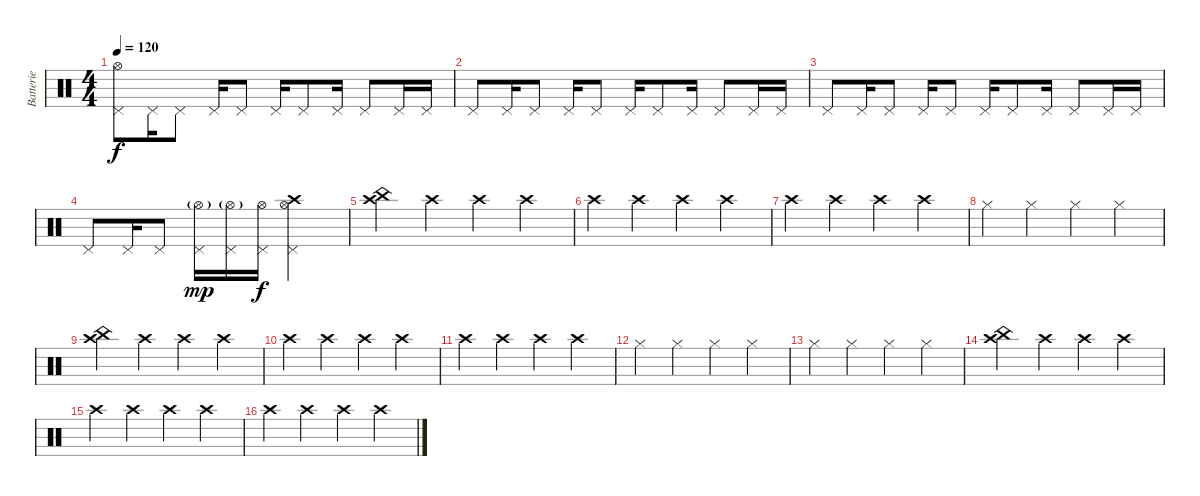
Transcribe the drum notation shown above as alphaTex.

\track ("Batterie" "Batterie") {instrument percussion}
\staff {score}
\articulation defaults
\ts (4 4)
\tempo 120
\clef neutral
\ks c
("Pedal Hi-Hat (hit)" "Hi-Hat (open)").8{dy f} "Pedal Hi-Hat (hit)".16 "Pedal Hi-Hat (hit)".8 "Pedal Hi-Hat (hit)".16 "Pedal Hi-Hat (hit)".8 "Pedal Hi-Hat (hit)".16 "Pedal Hi-Hat (hit)".8 "Pedal Hi-Hat (hit)".16 "Pedal Hi-Hat (hit)".8 "Pedal Hi-Hat (hit)".16 "Pedal Hi-Hat (hit)".16 |
"Pedal Hi-Hat (hit)".8 "Pedal Hi-Hat (hit)".16 "Pedal Hi-Hat (hit)".8 "Pedal Hi-Hat (hit)".16 "Pedal Hi-Hat (hit)".8 "Pedal Hi-Hat (hit)".16 "Pedal Hi-Hat (hit)".8 "Pedal Hi-Hat (hit)".16 "Pedal Hi-Hat (hit)".8 "Pedal Hi-Hat (hit)".16 "Pedal Hi-Hat (hit)".16 |
"Pedal Hi-Hat (hit)".8 "Pedal Hi-Hat (hit)".16 "Pedal Hi-Hat (hit)".8 "Pedal Hi-Hat (hit)".16 "Pedal Hi-Hat (hit)".8 "Pedal Hi-Hat (hit)".16 "Pedal Hi-Hat (hit)".8 "Pedal Hi-Hat (hit)".16 "Pedal Hi-Hat (hit)".8 "Pedal Hi-Hat (hit)".16 "Pedal Hi-Hat (hit)".16 |
"Pedal Hi-Hat (hit)".8 "Pedal Hi-Hat (hit)".16 "Pedal Hi-Hat (hit)".8 ("Pedal Hi-Hat (hit)" "Hi-Hat (open)"{g}).16{dy mp} ("Pedal Hi-Hat (hit)" "Hi-Hat (open)"{g}).16 ("Pedal Hi-Hat (hit)" "Hi-Hat (open)").16{dy f} ("Pedal Hi-Hat (hit)" "Hi-Hat (open)" "Crash high (hit)").2 |
("China (hit)" "Crash high (hit)").4 "Crash high (hit)".4 "Crash high (hit)".4 "Crash high (hit)".4 |
"Crash high (hit)".4 "Crash high (hit)".4 "Crash high (hit)".4 "Crash high (hit)".4 |
"Crash high (hit)".4 "Crash high (hit)".4 "Crash high (hit)".4 "Crash high (hit)".4 |
"Hi-Hat (closed)".4 "Hi-Hat (closed)".4 "Hi-Hat (closed)".4 "Hi-Hat (closed)".4 |
("China (hit)" "Crash high (hit)").4 "Crash high (hit)".4 "Crash high (hit)".4 "Crash high (hit)".4 |
"Crash high (hit)".4 "Crash high (hit)".4 "Crash high (hit)".4 "Crash high (hit)".4 |
"Crash high (hit)".4 "Crash high (hit)".4 "Crash high (hit)".4 "Crash high (hit)".4 |
"Hi-Hat (closed)".4 "Hi-Hat (closed)".4 "Hi-Hat (closed)".4 "Hi-Hat (closed)".4 |
"Hi-Hat (closed)".4 "Hi-Hat (closed)".4 "Hi-Hat (closed)".4 "Hi-Hat (closed)".4 |
("China (hit)" "Crash high (hit)").4 "Crash high (hit)".4 "Crash high (hit)".4 "Crash high (hit)".4 |
"Crash high (hit)".4 "Crash high (hit)".4 "Crash high (hit)".4 "Crash high (hit)".4 |
"Crash high (hit)".4 "Crash high (hit)".4 "Crash high (hit)".4 "Crash high (hit)".4
